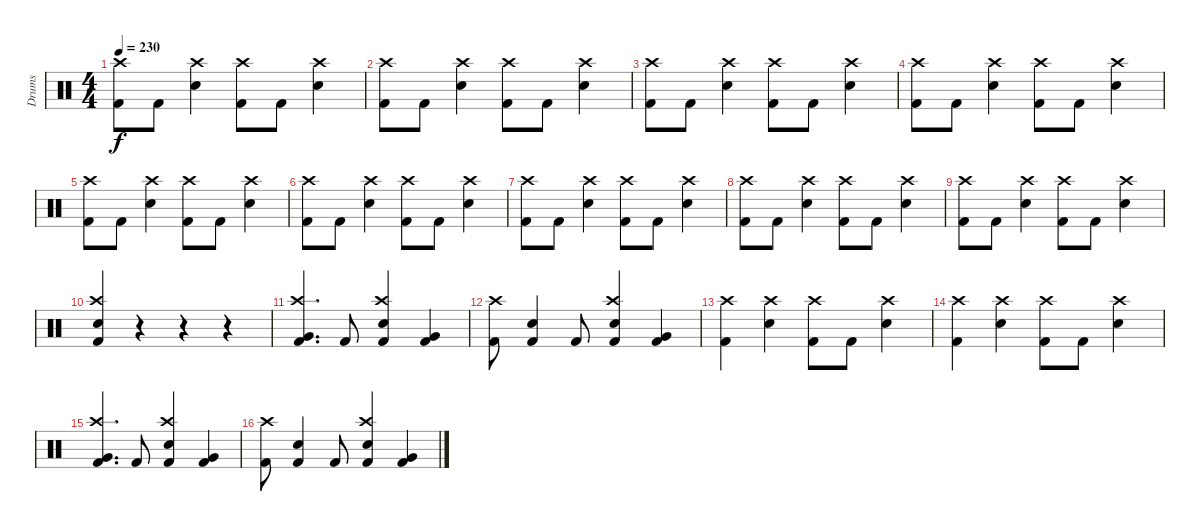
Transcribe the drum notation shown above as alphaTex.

\track ("Drums" "Drums") {instrument percussion}
\staff {score}
\articulation defaults
\ts (4 4)
\tempo 230
\clef neutral
\ks c
("Kick (hit) 2" "Crash high (hit)").8{dy f} "Kick (hit) 2".8 ("Snare (hit) 2" "Crash high (hit)").4 ("Kick (hit) 2" "Crash high (hit)").8 "Kick (hit) 2".8 ("Snare (hit) 2" "Crash high (hit)").4 |
("Kick (hit) 2" "Crash high (hit)").8 "Kick (hit) 2".8 ("Snare (hit) 2" "Crash high (hit)").4 ("Kick (hit) 2" "Crash high (hit)").8 "Kick (hit) 2".8 ("Snare (hit) 2" "Crash high (hit)").4 |
("Kick (hit) 2" "Crash high (hit)").8 "Kick (hit) 2".8 ("Snare (hit) 2" "Crash high (hit)").4 ("Kick (hit) 2" "Crash high (hit)").8 "Kick (hit) 2".8 ("Snare (hit) 2" "Crash high (hit)").4 |
("Kick (hit) 2" "Crash high (hit)").8 "Kick (hit) 2".8 ("Snare (hit) 2" "Crash high (hit)").4 ("Kick (hit) 2" "Crash high (hit)").8 "Kick (hit) 2".8 ("Snare (hit) 2" "Crash high (hit)").4 |
("Kick (hit) 2" "Crash high (hit)").8 "Kick (hit) 2".8 ("Snare (hit) 2" "Crash high (hit)").4 ("Kick (hit) 2" "Crash high (hit)").8 "Kick (hit) 2".8 ("Snare (hit) 2" "Crash high (hit)").4 |
("Kick (hit) 2" "Crash high (hit)").8 "Kick (hit) 2".8 ("Snare (hit) 2" "Crash high (hit)").4 ("Kick (hit) 2" "Crash high (hit)").8 "Kick (hit) 2".8 ("Snare (hit) 2" "Crash high (hit)").4 |
("Kick (hit) 2" "Crash high (hit)").8 "Kick (hit) 2".8 ("Snare (hit) 2" "Crash high (hit)").4 ("Kick (hit) 2" "Crash high (hit)").8 "Kick (hit) 2".8 ("Snare (hit) 2" "Crash high (hit)").4 |
("Kick (hit) 2" "Crash high (hit)").8 "Kick (hit) 2".8 ("Snare (hit) 2" "Crash high (hit)").4 ("Kick (hit) 2" "Crash high (hit)").8 "Kick (hit) 2".8 ("Snare (hit) 2" "Crash high (hit)").4 |
("Kick (hit) 2" "Crash high (hit)").8 "Kick (hit) 2".8 ("Snare (hit) 2" "Crash high (hit)").4 ("Kick (hit) 2" "Crash high (hit)").8 "Kick (hit) 2".8 ("Snare (hit) 2" "Crash high (hit)").4 |
("Snare (hit) 2" "Kick (hit) 2" "Crash high (hit)").4 r.4 r.4 r.4 |
("Very Low Tom (hit)" "Kick (hit) 2" "Crash high (hit)").4{d} "Kick (hit) 2".8 ("Snare (hit) 2" "Kick (hit) 2" "Crash high (hit)").4 ("Very Low Tom (hit)" "Kick (hit) 2").4 |
("Kick (hit) 2" "Crash high (hit)").8 ("Snare (hit) 2" "Kick (hit) 2").4 "Kick (hit) 2".8 ("Snare (hit) 2" "Kick (hit) 2" "Crash high (hit)").4 ("Very Low Tom (hit)" "Kick (hit) 2").4 |
("Kick (hit) 2" "Crash high (hit)").4 ("Snare (hit) 2" "Crash high (hit)").4 ("Kick (hit) 2" "Crash high (hit)").8 "Kick (hit) 2".8 ("Snare (hit) 2" "Crash high (hit)").4 |
("Kick (hit) 2" "Crash high (hit)").4 ("Snare (hit) 2" "Crash high (hit)").4 ("Kick (hit) 2" "Crash high (hit)").8 "Kick (hit) 2".8 ("Snare (hit) 2" "Crash high (hit)").4 |
("Very Low Tom (hit)" "Kick (hit) 2" "Crash high (hit)").4{d} "Kick (hit) 2".8 ("Snare (hit) 2" "Kick (hit) 2" "Crash high (hit)").4 ("Very Low Tom (hit)" "Kick (hit) 2").4 |
("Kick (hit) 2" "Crash high (hit)").8 ("Snare (hit) 2" "Kick (hit) 2").4 "Kick (hit) 2".8 ("Snare (hit) 2" "Kick (hit) 2" "Crash high (hit)").4 ("Very Low Tom (hit)" "Kick (hit) 2").4
